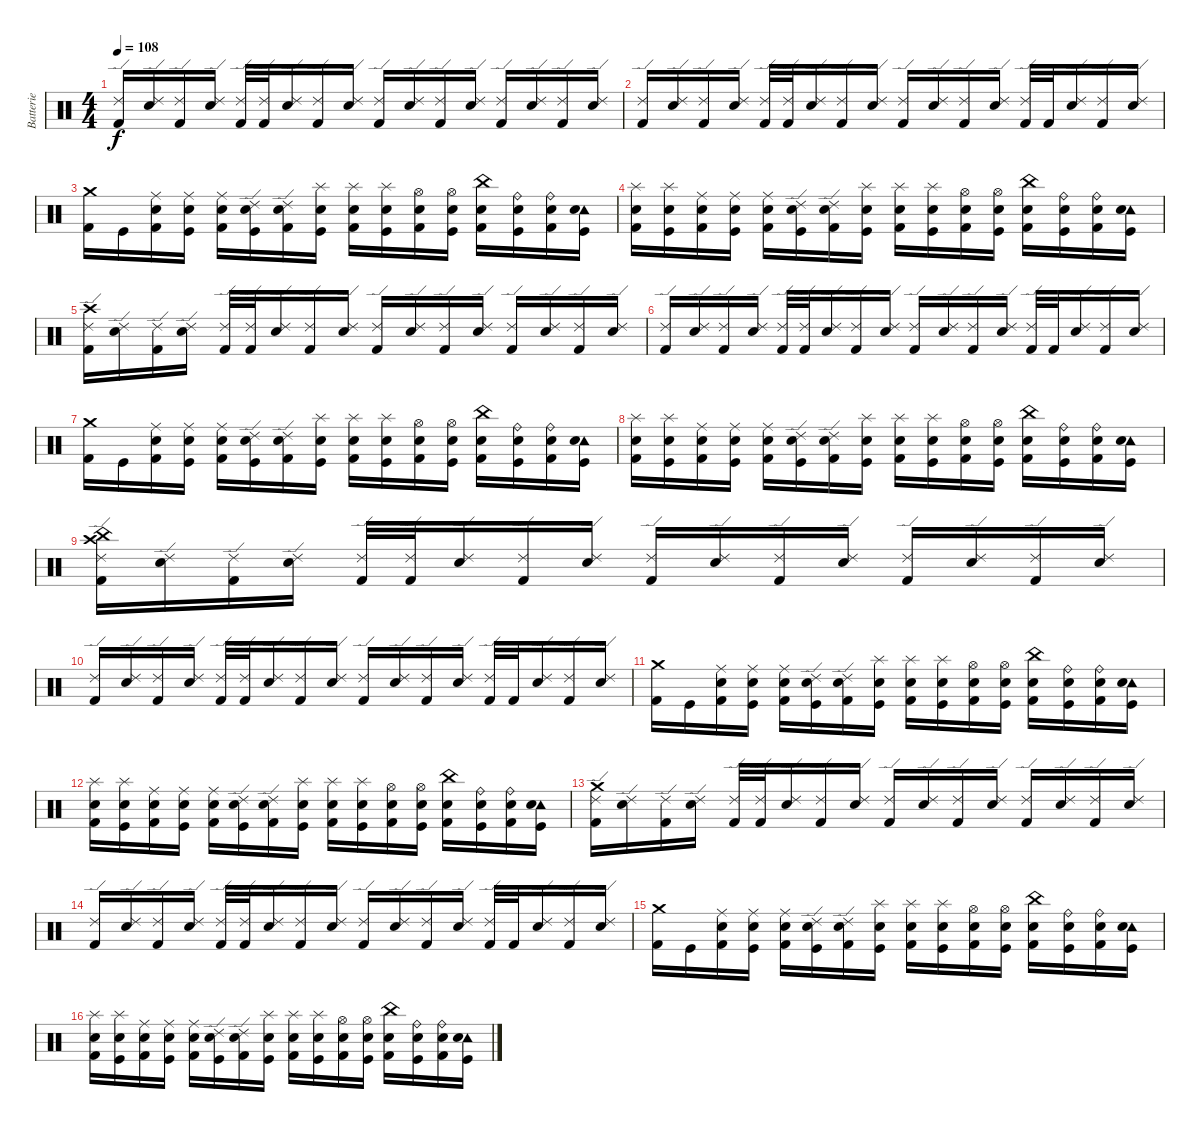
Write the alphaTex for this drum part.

\track ("Batterie" "Batterie") {instrument percussion}
\staff {score}
\articulation defaults
\ts (4 4)
\tempo 108
\clef neutral
\ks c
("Ride (edge) 2" "Kick (hit) 2").16{dy f} ("Ride (edge) 2" "Snare (hit) 2").16 ("Ride (edge) 2" "Kick (hit) 2").16 ("Ride (edge) 2" "Snare (hit) 2").16 ("Ride (edge) 2" "Kick (hit) 2").32 ("Ride (edge) 2" "Kick (hit) 2").32 ("Ride (edge) 2" "Snare (hit) 2").16 ("Ride (edge) 2" "Kick (hit) 2").16 ("Ride (edge) 2" "Snare (hit) 2").16 ("Ride (edge) 2" "Kick (hit) 2").16 ("Ride (edge) 2" "Snare (hit) 2").16 ("Ride (edge) 2" "Kick (hit) 2").16 ("Ride (edge) 2" "Snare (hit) 2").16 ("Ride (edge) 2" "Kick (hit) 2").16 ("Ride (edge) 2" "Snare (hit) 2").16 ("Ride (edge) 2" "Kick (hit) 2").16 ("Ride (edge) 2" "Snare (hit) 2").16 |
("Ride (edge) 2" "Kick (hit) 2").16 ("Ride (edge) 2" "Snare (hit) 2").16 ("Ride (edge) 2" "Kick (hit) 2").16 ("Ride (edge) 2" "Snare (hit) 2").16 ("Ride (edge) 2" "Kick (hit) 2").32 ("Ride (edge) 2" "Kick (hit) 2").32 ("Ride (edge) 2" "Snare (hit) 2").16 ("Ride (edge) 2" "Kick (hit) 2").16 ("Ride (edge) 2" "Snare (hit) 2").16 ("Ride (edge) 2" "Kick (hit) 2").16 ("Ride (edge) 2" "Snare (hit) 2").16 ("Ride (edge) 2" "Kick (hit) 2").16 ("Ride (edge) 2" "Snare (hit) 2").16 ("Ride (edge) 2" "Kick (hit) 2").32 "Kick (hit) 2".32 ("Ride (edge) 2" "Snare (hit) 2").16 ("Ride (edge) 2" "Kick (hit) 2").16 ("Ride (edge) 2" "Snare (hit) 2").16 |
("Crash medium (hit)" "Kick (hit) 2").16 "Kick (hit)".16 ("Ride (middle)" "Snare (hit) 2" "Kick (hit) 2").16 ("Ride (middle)" "Snare (hit) 2" "Kick (hit)").16 ("Ride (middle)" "Snare (hit) 2" "Kick (hit) 2").16 ("Ride (edge) 2" "Snare (hit) 2" "Kick (hit)").16 ("Ride (edge) 2" "Snare (hit) 2" "Kick (hit) 2").16 ("Splash (hit)" "Snare (hit) 2" "Kick (hit)").16 ("Splash (hit)" "Snare (hit) 2" "Kick (hit) 2").16 ("Splash (hit)" "Snare (hit) 2" "Kick (hit)").16 ("Hi-Hat (open)" "Snare (hit) 2" "Kick (hit) 2").16 ("Hi-Hat (open)" "Snare (hit) 2" "Kick (hit)").16 ("China (hit)" "Snare (hit) 2" "Kick (hit) 2").16 ("Ride (bell)" "Snare (hit) 2" "Kick (hit)").16 ("Ride (bell)" "Snare (hit) 2" "Kick (hit) 2").16 ("Tambourine (hit)" "Snare (hit) 2" "Kick (hit)").16 |
("Splash (hit)" "Snare (hit) 2" "Kick (hit) 2").16 ("Splash (hit)" "Snare (hit) 2" "Kick (hit)").16 ("Ride (middle)" "Snare (hit) 2" "Kick (hit) 2").16 ("Ride (middle)" "Snare (hit) 2" "Kick (hit)").16 ("Ride (middle)" "Snare (hit) 2" "Kick (hit) 2").16 ("Ride (edge) 2" "Snare (hit) 2" "Kick (hit)").16 ("Ride (edge) 2" "Snare (hit) 2" "Kick (hit) 2").16 ("Splash (hit)" "Snare (hit) 2" "Kick (hit)").16 ("Splash (hit)" "Snare (hit) 2" "Kick (hit) 2").16 ("Splash (hit)" "Snare (hit) 2" "Kick (hit)").16 ("Hi-Hat (open)" "Snare (hit) 2" "Kick (hit) 2").16 ("Hi-Hat (open)" "Snare (hit) 2" "Kick (hit)").16 ("China (hit)" "Snare (hit) 2" "Kick (hit) 2").16 ("Ride (bell)" "Snare (hit) 2" "Kick (hit)").16 ("Ride (bell)" "Snare (hit) 2" "Kick (hit) 2").16 ("Tambourine (hit)" "Snare (hit) 2" "Kick (hit)").16 |
("Crash high (hit)" "Ride (edge) 2" "Kick (hit) 2").16 ("Ride (edge) 2" "Snare (hit) 2").16 ("Ride (edge) 2" "Kick (hit) 2").16 ("Ride (edge) 2" "Snare (hit) 2").16 ("Ride (edge) 2" "Kick (hit) 2").32 ("Ride (edge) 2" "Kick (hit) 2").32 ("Ride (edge) 2" "Snare (hit) 2").16 ("Ride (edge) 2" "Kick (hit) 2").16 ("Ride (edge) 2" "Snare (hit) 2").16 ("Ride (edge) 2" "Kick (hit) 2").16 ("Ride (edge) 2" "Snare (hit) 2").16 ("Ride (edge) 2" "Kick (hit) 2").16 ("Ride (edge) 2" "Snare (hit) 2").16 ("Ride (edge) 2" "Kick (hit) 2").16 ("Ride (edge) 2" "Snare (hit) 2").16 ("Ride (edge) 2" "Kick (hit) 2").16 ("Ride (edge) 2" "Snare (hit) 2").16 |
("Ride (edge) 2" "Kick (hit) 2").16 ("Ride (edge) 2" "Snare (hit) 2").16 ("Ride (edge) 2" "Kick (hit) 2").16 ("Ride (edge) 2" "Snare (hit) 2").16 ("Ride (edge) 2" "Kick (hit) 2").32 ("Ride (edge) 2" "Kick (hit) 2").32 ("Ride (edge) 2" "Snare (hit) 2").16 ("Ride (edge) 2" "Kick (hit) 2").16 ("Ride (edge) 2" "Snare (hit) 2").16 ("Ride (edge) 2" "Kick (hit) 2").16 ("Ride (edge) 2" "Snare (hit) 2").16 ("Ride (edge) 2" "Kick (hit) 2").16 ("Ride (edge) 2" "Snare (hit) 2").16 ("Ride (edge) 2" "Kick (hit) 2").32 "Kick (hit) 2".32 ("Ride (edge) 2" "Snare (hit) 2").16 ("Ride (edge) 2" "Kick (hit) 2").16 ("Ride (edge) 2" "Snare (hit) 2").16 |
("Crash medium (hit)" "Kick (hit) 2").16 "Kick (hit)".16 ("Ride (middle)" "Snare (hit) 2" "Kick (hit) 2").16 ("Ride (middle)" "Snare (hit) 2" "Kick (hit)").16 ("Ride (middle)" "Snare (hit) 2" "Kick (hit) 2").16 ("Ride (edge) 2" "Snare (hit) 2" "Kick (hit)").16 ("Ride (edge) 2" "Snare (hit) 2" "Kick (hit) 2").16 ("Splash (hit)" "Snare (hit) 2" "Kick (hit)").16 ("Splash (hit)" "Snare (hit) 2" "Kick (hit) 2").16 ("Splash (hit)" "Snare (hit) 2" "Kick (hit)").16 ("Hi-Hat (open)" "Snare (hit) 2" "Kick (hit) 2").16 ("Hi-Hat (open)" "Snare (hit) 2" "Kick (hit)").16 ("China (hit)" "Snare (hit) 2" "Kick (hit) 2").16 ("Ride (bell)" "Snare (hit) 2" "Kick (hit)").16 ("Ride (bell)" "Snare (hit) 2" "Kick (hit) 2").16 ("Tambourine (hit)" "Snare (hit) 2" "Kick (hit)").16 |
("Splash (hit)" "Snare (hit) 2" "Kick (hit) 2").16 ("Splash (hit)" "Snare (hit) 2" "Kick (hit)").16 ("Ride (middle)" "Snare (hit) 2" "Kick (hit) 2").16 ("Ride (middle)" "Snare (hit) 2" "Kick (hit)").16 ("Ride (middle)" "Snare (hit) 2" "Kick (hit) 2").16 ("Ride (edge) 2" "Snare (hit) 2" "Kick (hit)").16 ("Ride (edge) 2" "Snare (hit) 2" "Kick (hit) 2").16 ("Splash (hit)" "Snare (hit) 2" "Kick (hit)").16 ("Splash (hit)" "Snare (hit) 2" "Kick (hit) 2").16 ("Splash (hit)" "Snare (hit) 2" "Kick (hit)").16 ("Hi-Hat (open)" "Snare (hit) 2" "Kick (hit) 2").16 ("Hi-Hat (open)" "Snare (hit) 2" "Kick (hit)").16 ("China (hit)" "Snare (hit) 2" "Kick (hit) 2").16 ("Ride (bell)" "Snare (hit) 2" "Kick (hit)").16 ("Ride (bell)" "Snare (hit) 2" "Kick (hit) 2").16 ("Tambourine (hit)" "Snare (hit) 2" "Kick (hit)").16 |
("Crash high (hit)" "Ride (edge) 2" "China (hit)" "Kick (hit) 2").16 ("Ride (edge) 2" "Snare (hit) 2").16 ("Ride (edge) 2" "Kick (hit) 2").16 ("Ride (edge) 2" "Snare (hit) 2").16 ("Ride (edge) 2" "Kick (hit) 2").32 ("Ride (edge) 2" "Kick (hit) 2").32 ("Ride (edge) 2" "Snare (hit) 2").16 ("Ride (edge) 2" "Kick (hit) 2").16 ("Ride (edge) 2" "Snare (hit) 2").16 ("Ride (edge) 2" "Kick (hit) 2").16 ("Ride (edge) 2" "Snare (hit) 2").16 ("Ride (edge) 2" "Kick (hit) 2").16 ("Ride (edge) 2" "Snare (hit) 2").16 ("Ride (edge) 2" "Kick (hit) 2").16 ("Ride (edge) 2" "Snare (hit) 2").16 ("Ride (edge) 2" "Kick (hit) 2").16 ("Ride (edge) 2" "Snare (hit) 2").16 |
("Ride (edge) 2" "Kick (hit) 2").16 ("Ride (edge) 2" "Snare (hit) 2").16 ("Ride (edge) 2" "Kick (hit) 2").16 ("Ride (edge) 2" "Snare (hit) 2").16 ("Ride (edge) 2" "Kick (hit) 2").32 ("Ride (edge) 2" "Kick (hit) 2").32 ("Ride (edge) 2" "Snare (hit) 2").16 ("Ride (edge) 2" "Kick (hit) 2").16 ("Ride (edge) 2" "Snare (hit) 2").16 ("Ride (edge) 2" "Kick (hit) 2").16 ("Ride (edge) 2" "Snare (hit) 2").16 ("Ride (edge) 2" "Kick (hit) 2").16 ("Ride (edge) 2" "Snare (hit) 2").16 ("Ride (edge) 2" "Kick (hit) 2").32 "Kick (hit) 2".32 ("Ride (edge) 2" "Snare (hit) 2").16 ("Ride (edge) 2" "Kick (hit) 2").16 ("Ride (edge) 2" "Snare (hit) 2").16 |
("Crash medium (hit)" "Kick (hit) 2").16 "Kick (hit)".16 ("Ride (middle)" "Snare (hit) 2" "Kick (hit) 2").16 ("Ride (middle)" "Snare (hit) 2" "Kick (hit)").16 ("Ride (middle)" "Snare (hit) 2" "Kick (hit) 2").16 ("Ride (edge) 2" "Snare (hit) 2" "Kick (hit)").16 ("Ride (edge) 2" "Snare (hit) 2" "Kick (hit) 2").16 ("Splash (hit)" "Snare (hit) 2" "Kick (hit)").16 ("Splash (hit)" "Snare (hit) 2" "Kick (hit) 2").16 ("Splash (hit)" "Snare (hit) 2" "Kick (hit)").16 ("Hi-Hat (open)" "Snare (hit) 2" "Kick (hit) 2").16 ("Hi-Hat (open)" "Snare (hit) 2" "Kick (hit)").16 ("China (hit)" "Snare (hit) 2" "Kick (hit) 2").16 ("Ride (bell)" "Snare (hit) 2" "Kick (hit)").16 ("Ride (bell)" "Snare (hit) 2" "Kick (hit) 2").16 ("Tambourine (hit)" "Snare (hit) 2" "Kick (hit)").16 |
("Splash (hit)" "Snare (hit) 2" "Kick (hit) 2").16 ("Splash (hit)" "Snare (hit) 2" "Kick (hit)").16 ("Ride (middle)" "Snare (hit) 2" "Kick (hit) 2").16 ("Ride (middle)" "Snare (hit) 2" "Kick (hit)").16 ("Ride (middle)" "Snare (hit) 2" "Kick (hit) 2").16 ("Ride (edge) 2" "Snare (hit) 2" "Kick (hit)").16 ("Ride (edge) 2" "Snare (hit) 2" "Kick (hit) 2").16 ("Splash (hit)" "Snare (hit) 2" "Kick (hit)").16 ("Splash (hit)" "Snare (hit) 2" "Kick (hit) 2").16 ("Splash (hit)" "Snare (hit) 2" "Kick (hit)").16 ("Hi-Hat (open)" "Snare (hit) 2" "Kick (hit) 2").16 ("Hi-Hat (open)" "Snare (hit) 2" "Kick (hit)").16 ("China (hit)" "Snare (hit) 2" "Kick (hit) 2").16 ("Ride (bell)" "Snare (hit) 2" "Kick (hit)").16 ("Ride (bell)" "Snare (hit) 2" "Kick (hit) 2").16 ("Tambourine (hit)" "Snare (hit) 2" "Kick (hit)").16 |
("Crash medium (hit)" "Ride (edge) 2" "Kick (hit) 2").16 ("Ride (edge) 2" "Snare (hit) 2").16 ("Ride (edge) 2" "Kick (hit) 2").16 ("Ride (edge) 2" "Snare (hit) 2").16 ("Ride (edge) 2" "Kick (hit) 2").32 ("Ride (edge) 2" "Kick (hit) 2").32 ("Ride (edge) 2" "Snare (hit) 2").16 ("Ride (edge) 2" "Kick (hit) 2").16 ("Ride (edge) 2" "Snare (hit) 2").16 ("Ride (edge) 2" "Kick (hit) 2").16 ("Ride (edge) 2" "Snare (hit) 2").16 ("Ride (edge) 2" "Kick (hit) 2").16 ("Ride (edge) 2" "Snare (hit) 2").16 ("Ride (edge) 2" "Kick (hit) 2").16 ("Ride (edge) 2" "Snare (hit) 2").16 ("Ride (edge) 2" "Kick (hit) 2").16 ("Ride (edge) 2" "Snare (hit) 2").16 |
("Ride (edge) 2" "Kick (hit) 2").16 ("Ride (edge) 2" "Snare (hit) 2").16 ("Ride (edge) 2" "Kick (hit) 2").16 ("Ride (edge) 2" "Snare (hit) 2").16 ("Ride (edge) 2" "Kick (hit) 2").32 ("Ride (edge) 2" "Kick (hit) 2").32 ("Ride (edge) 2" "Snare (hit) 2").16 ("Ride (edge) 2" "Kick (hit) 2").16 ("Ride (edge) 2" "Snare (hit) 2").16 ("Ride (edge) 2" "Kick (hit) 2").16 ("Ride (edge) 2" "Snare (hit) 2").16 ("Ride (edge) 2" "Kick (hit) 2").16 ("Ride (edge) 2" "Snare (hit) 2").16 ("Ride (edge) 2" "Kick (hit) 2").32 "Kick (hit) 2".32 ("Ride (edge) 2" "Snare (hit) 2").16 ("Ride (edge) 2" "Kick (hit) 2").16 ("Ride (edge) 2" "Snare (hit) 2").16 |
("Crash medium (hit)" "Kick (hit) 2").16 "Kick (hit)".16 ("Ride (middle)" "Snare (hit) 2" "Kick (hit) 2").16 ("Ride (middle)" "Snare (hit) 2" "Kick (hit)").16 ("Ride (middle)" "Snare (hit) 2" "Kick (hit) 2").16 ("Ride (edge) 2" "Snare (hit) 2" "Kick (hit)").16 ("Ride (edge) 2" "Snare (hit) 2" "Kick (hit) 2").16 ("Splash (hit)" "Snare (hit) 2" "Kick (hit)").16 ("Splash (hit)" "Snare (hit) 2" "Kick (hit) 2").16 ("Splash (hit)" "Snare (hit) 2" "Kick (hit)").16 ("Hi-Hat (open)" "Snare (hit) 2" "Kick (hit) 2").16 ("Hi-Hat (open)" "Snare (hit) 2" "Kick (hit)").16 ("China (hit)" "Snare (hit) 2" "Kick (hit) 2").16 ("Ride (bell)" "Snare (hit) 2" "Kick (hit)").16 ("Ride (bell)" "Snare (hit) 2" "Kick (hit) 2").16 ("Tambourine (hit)" "Snare (hit) 2" "Kick (hit)").16 |
("Splash (hit)" "Snare (hit) 2" "Kick (hit) 2").16 ("Splash (hit)" "Snare (hit) 2" "Kick (hit)").16 ("Ride (middle)" "Snare (hit) 2" "Kick (hit) 2").16 ("Ride (middle)" "Snare (hit) 2" "Kick (hit)").16 ("Ride (middle)" "Snare (hit) 2" "Kick (hit) 2").16 ("Ride (edge) 2" "Snare (hit) 2" "Kick (hit)").16 ("Ride (edge) 2" "Snare (hit) 2" "Kick (hit) 2").16 ("Splash (hit)" "Snare (hit) 2" "Kick (hit)").16 ("Splash (hit)" "Snare (hit) 2" "Kick (hit) 2").16 ("Splash (hit)" "Snare (hit) 2" "Kick (hit)").16 ("Hi-Hat (open)" "Snare (hit) 2" "Kick (hit) 2").16 ("Hi-Hat (open)" "Snare (hit) 2" "Kick (hit)").16 ("China (hit)" "Snare (hit) 2" "Kick (hit) 2").16 ("Ride (bell)" "Snare (hit) 2" "Kick (hit)").16 ("Ride (bell)" "Snare (hit) 2" "Kick (hit) 2").16 ("Tambourine (hit)" "Snare (hit) 2" "Kick (hit)").16
